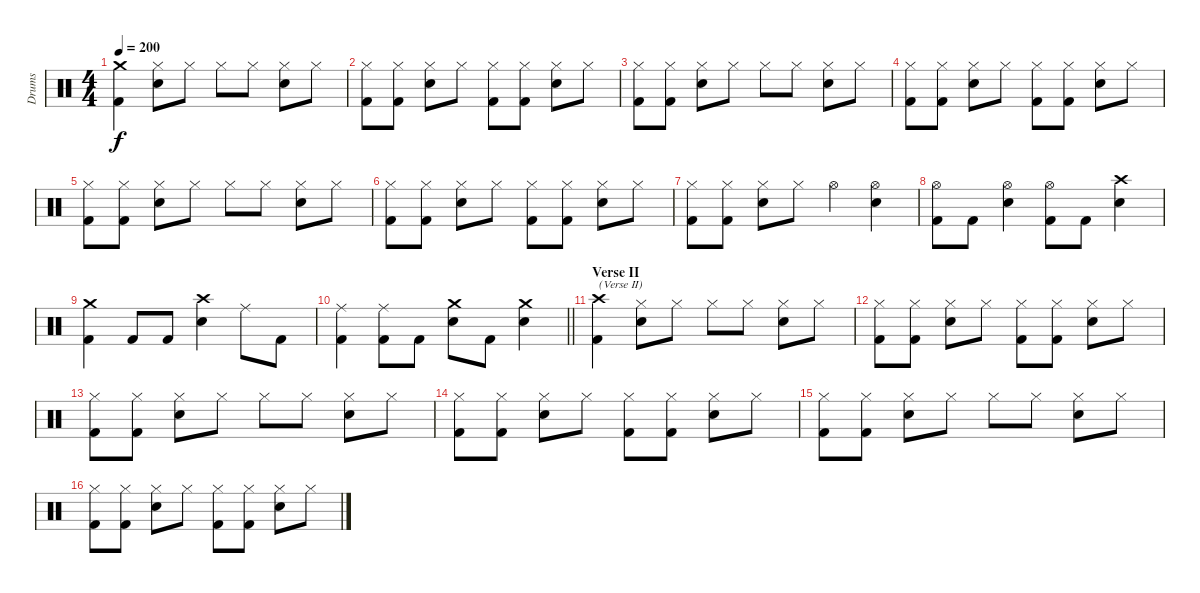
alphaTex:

\track ("Drums" "Drums") {instrument percussion}
\staff {score}
\articulation defaults
\ts (4 4)
\tempo 200
\clef neutral
\ks c
("Crash medium (hit)" "Kick (hit) 2").4{dy f} ("Hi-Hat (closed)" "Electric Snare (hit)").8 "Hi-Hat (closed)".8 "Hi-Hat (closed)".8 "Hi-Hat (closed)".8 ("Hi-Hat (closed)" "Electric Snare (hit)").8 "Hi-Hat (closed)".8 |
("Hi-Hat (closed)" "Kick (hit) 2").8 ("Hi-Hat (closed)" "Kick (hit) 2").8 ("Hi-Hat (closed)" "Electric Snare (hit)").8 "Hi-Hat (closed)".8 ("Hi-Hat (closed)" "Kick (hit) 2").8 ("Hi-Hat (closed)" "Kick (hit) 2").8 ("Hi-Hat (closed)" "Electric Snare (hit)").8 "Hi-Hat (closed)".8 |
("Hi-Hat (closed)" "Kick (hit) 2").8 ("Hi-Hat (closed)" "Kick (hit) 2").8 ("Hi-Hat (closed)" "Electric Snare (hit)").8 "Hi-Hat (closed)".8 "Hi-Hat (closed)".8 "Hi-Hat (closed)".8 ("Hi-Hat (closed)" "Electric Snare (hit)").8 "Hi-Hat (closed)".8 |
("Hi-Hat (closed)" "Kick (hit) 2").8 ("Hi-Hat (closed)" "Kick (hit) 2").8 ("Hi-Hat (closed)" "Electric Snare (hit)").8 "Hi-Hat (closed)".8 ("Hi-Hat (closed)" "Kick (hit) 2").8 ("Hi-Hat (closed)" "Kick (hit) 2").8 ("Hi-Hat (closed)" "Electric Snare (hit)").8 "Hi-Hat (closed)".8 |
("Hi-Hat (closed)" "Kick (hit) 2").8 ("Hi-Hat (closed)" "Kick (hit) 2").8 ("Hi-Hat (closed)" "Electric Snare (hit)").8 "Hi-Hat (closed)".8 "Hi-Hat (closed)".8 "Hi-Hat (closed)".8 ("Hi-Hat (closed)" "Electric Snare (hit)").8 "Hi-Hat (closed)".8 |
("Hi-Hat (closed)" "Kick (hit) 2").8 ("Hi-Hat (closed)" "Kick (hit) 2").8 ("Hi-Hat (closed)" "Electric Snare (hit)").8 "Hi-Hat (closed)".8 ("Hi-Hat (closed)" "Kick (hit) 2").8 ("Hi-Hat (closed)" "Kick (hit) 2").8 ("Hi-Hat (closed)" "Electric Snare (hit)").8 "Hi-Hat (closed)".8 |
("Hi-Hat (closed)" "Kick (hit) 2").8 ("Hi-Hat (closed)" "Kick (hit) 2").8 ("Hi-Hat (closed)" "Electric Snare (hit)").8 "Hi-Hat (closed)".8 "Hi-Hat (open)".4 ("Hi-Hat (open)" "Electric Snare (hit)").4 |
("Hi-Hat (open)" "Kick (hit) 2").8 "Kick (hit) 2".8 ("Hi-Hat (open)" "Electric Snare (hit)").4 ("Hi-Hat (open)" "Kick (hit) 2").8 "Kick (hit) 2".8 ("Crash high (hit)" "Electric Snare (hit)").4 |
("Crash medium (hit)" "Kick (hit) 2").4 "Kick (hit) 2".8 "Kick (hit) 2".8 ("Crash high (hit)" "Electric Snare (hit)").4 "Ride (middle)".8 "Kick (hit) 2".8 |
\barLineRight lightlight
("Ride (middle)" "Kick (hit) 2").4 ("Ride (middle)" "Kick (hit) 2").8 "Kick (hit) 2".8 ("Crash medium (hit)" "Electric Snare (hit)").8 "Kick (hit) 2".8 ("Crash medium (hit)" "Electric Snare (hit)").4 |
\section ("" "Verse II")
("Crash high (hit)" "Kick (hit) 2").4{txt "(Verse II)"} ("Hi-Hat (closed)" "Electric Snare (hit)").8 "Hi-Hat (closed)".8 "Hi-Hat (closed)".8 "Hi-Hat (closed)".8 ("Hi-Hat (closed)" "Electric Snare (hit)").8 "Hi-Hat (closed)".8 |
("Hi-Hat (closed)" "Kick (hit) 2").8 ("Hi-Hat (closed)" "Kick (hit) 2").8 ("Hi-Hat (closed)" "Electric Snare (hit)").8 "Hi-Hat (closed)".8 ("Hi-Hat (closed)" "Kick (hit) 2").8 ("Hi-Hat (closed)" "Kick (hit) 2").8 ("Hi-Hat (closed)" "Electric Snare (hit)").8 "Hi-Hat (closed)".8 |
("Hi-Hat (closed)" "Kick (hit) 2").8 ("Hi-Hat (closed)" "Kick (hit) 2").8 ("Hi-Hat (closed)" "Electric Snare (hit)").8 "Hi-Hat (closed)".8 "Hi-Hat (closed)".8 "Hi-Hat (closed)".8 ("Hi-Hat (closed)" "Electric Snare (hit)").8 "Hi-Hat (closed)".8 |
("Hi-Hat (closed)" "Kick (hit) 2").8 ("Hi-Hat (closed)" "Kick (hit) 2").8 ("Hi-Hat (closed)" "Electric Snare (hit)").8 "Hi-Hat (closed)".8 ("Hi-Hat (closed)" "Kick (hit) 2").8 ("Hi-Hat (closed)" "Kick (hit) 2").8 ("Hi-Hat (closed)" "Electric Snare (hit)").8 "Hi-Hat (closed)".8 |
("Hi-Hat (closed)" "Kick (hit) 2").8 ("Hi-Hat (closed)" "Kick (hit) 2").8 ("Hi-Hat (closed)" "Electric Snare (hit)").8 "Hi-Hat (closed)".8 "Hi-Hat (closed)".8 "Hi-Hat (closed)".8 ("Hi-Hat (closed)" "Electric Snare (hit)").8 "Hi-Hat (closed)".8 |
("Hi-Hat (closed)" "Kick (hit) 2").8 ("Hi-Hat (closed)" "Kick (hit) 2").8 ("Hi-Hat (closed)" "Electric Snare (hit)").8 "Hi-Hat (closed)".8 ("Hi-Hat (closed)" "Kick (hit) 2").8 ("Hi-Hat (closed)" "Kick (hit) 2").8 ("Hi-Hat (closed)" "Electric Snare (hit)").8 "Hi-Hat (closed)".8
